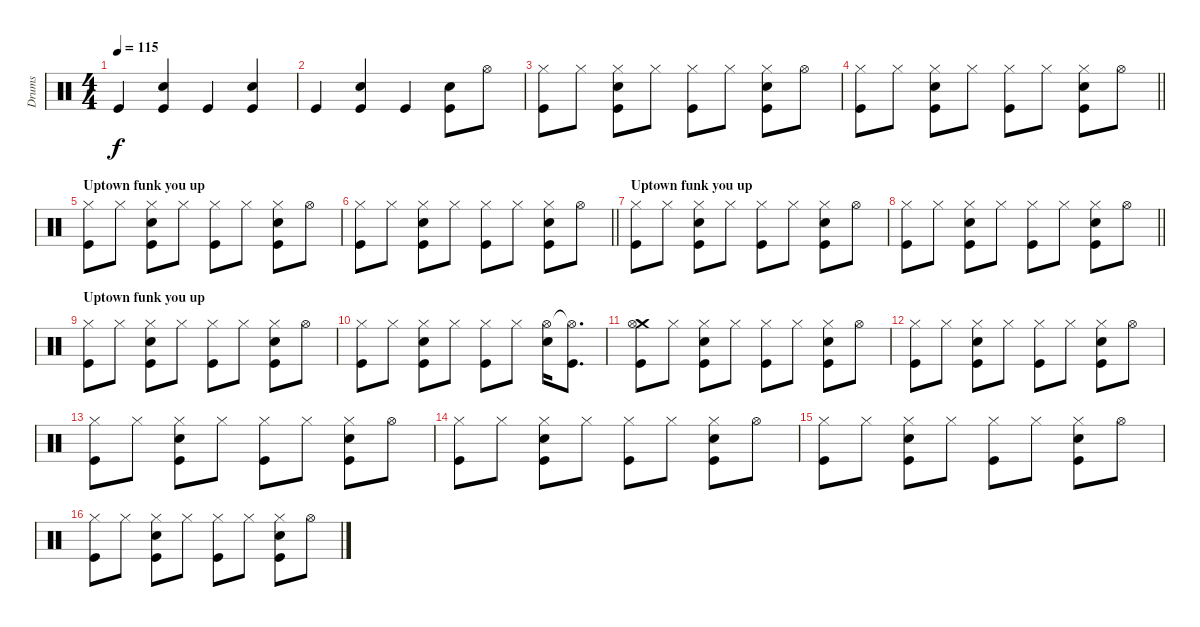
\track ("Drums" "Drums") {instrument percussion}
\staff {score}
\articulation defaults
\ts (4 4)
\tempo 115
\clef neutral
\ks c "Kick (hit)".4{dy f}
("Snare (hit) 2" "Kick (hit)").4 "Kick (hit)".4 ("Snare (hit) 2" "Kick (hit)").4 |
"Kick (hit)".4 ("Snare (hit) 2" "Kick (hit)").4 "Kick (hit)".4 ("Snare (hit) 2" "Kick (hit)").8 "Hi-Hat (open)".8 |
("Hi-Hat (closed)" "Kick (hit)").8 "Hi-Hat (closed)".8 ("Hi-Hat (closed)" "Snare (hit) 2" "Kick (hit)").8 "Hi-Hat (closed)".8 ("Hi-Hat (closed)" "Kick (hit)").8 "Hi-Hat (closed)".8 ("Hi-Hat (closed)" "Snare (hit) 2" "Kick (hit)").8 "Hi-Hat (open)".8 |
\barLineRight lightlight
("Hi-Hat (closed)" "Kick (hit)").8 "Hi-Hat (closed)".8 ("Hi-Hat (closed)" "Snare (hit) 2" "Kick (hit)").8 "Hi-Hat (closed)".8 ("Hi-Hat (closed)" "Kick (hit)").8 "Hi-Hat (closed)".8 ("Hi-Hat (closed)" "Snare (hit) 2" "Kick (hit)").8 "Hi-Hat (open)".8 |
\section ("" "Uptown funk you up")
("Hi-Hat (closed)" "Kick (hit)").8 "Hi-Hat (closed)".8 ("Hi-Hat (closed)" "Snare (hit) 2" "Kick (hit)").8 "Hi-Hat (closed)".8 ("Hi-Hat (closed)" "Kick (hit)").8 "Hi-Hat (closed)".8 ("Hi-Hat (closed)" "Snare (hit) 2" "Kick (hit)").8 "Hi-Hat (open)".8 |
\barLineRight lightlight
("Hi-Hat (closed)" "Kick (hit)").8 "Hi-Hat (closed)".8 ("Hi-Hat (closed)" "Snare (hit) 2" "Kick (hit)").8 "Hi-Hat (closed)".8 ("Hi-Hat (closed)" "Kick (hit)").8 "Hi-Hat (closed)".8 ("Hi-Hat (closed)" "Snare (hit) 2" "Kick (hit)").8 "Hi-Hat (open)".8 |
\section ("" "Uptown funk you up")
("Hi-Hat (closed)" "Kick (hit)").8 "Hi-Hat (closed)".8 ("Hi-Hat (closed)" "Snare (hit) 2" "Kick (hit)").8 "Hi-Hat (closed)".8 ("Hi-Hat (closed)" "Kick (hit)").8 "Hi-Hat (closed)".8 ("Hi-Hat (closed)" "Snare (hit) 2" "Kick (hit)").8 "Hi-Hat (open)".8 |
\barLineRight lightlight
("Hi-Hat (closed)" "Kick (hit)").8 "Hi-Hat (closed)".8 ("Hi-Hat (closed)" "Snare (hit) 2" "Kick (hit)").8 "Hi-Hat (closed)".8 ("Hi-Hat (closed)" "Kick (hit)").8 "Hi-Hat (closed)".8 ("Hi-Hat (closed)" "Snare (hit) 2" "Kick (hit)").8 "Hi-Hat (open)".8 |
\section ("" "Uptown funk you up")
("Hi-Hat (closed)" "Kick (hit)").8 "Hi-Hat (closed)".8 ("Hi-Hat (closed)" "Snare (hit) 2" "Kick (hit)").8 "Hi-Hat (closed)".8 ("Hi-Hat (closed)" "Kick (hit)").8 "Hi-Hat (closed)".8 ("Hi-Hat (closed)" "Snare (hit) 2" "Kick (hit)").8 "Hi-Hat (open)".8 |
("Hi-Hat (closed)" "Kick (hit)").8 "Hi-Hat (closed)".8 ("Hi-Hat (closed)" "Snare (hit) 2" "Kick (hit)").8 "Hi-Hat (closed)".8 ("Hi-Hat (closed)" "Kick (hit)").8 "Hi-Hat (closed)".8 ("Hi-Hat (open)" "Snare (hit) 2").16 ("Hi-Hat (open)"{t} "Kick (hit)").8{d} |
("Crash medium (hit)" "Hi-Hat (open)" "Kick (hit)").8 "Hi-Hat (closed)".8 ("Hi-Hat (closed)" "Snare (hit) 2" "Kick (hit)").8 "Hi-Hat (closed)".8 ("Hi-Hat (closed)" "Kick (hit)").8 "Hi-Hat (closed)".8 ("Hi-Hat (closed)" "Snare (hit) 2" "Kick (hit)").8 "Hi-Hat (open)".8 |
("Hi-Hat (closed)" "Kick (hit)").8 "Hi-Hat (closed)".8 ("Hi-Hat (closed)" "Snare (hit) 2" "Kick (hit)").8 "Hi-Hat (closed)".8 ("Hi-Hat (closed)" "Kick (hit)").8 "Hi-Hat (closed)".8 ("Hi-Hat (closed)" "Snare (hit) 2" "Kick (hit)").8 "Hi-Hat (open)".8 |
("Hi-Hat (closed)" "Kick (hit)").8 "Hi-Hat (closed)".8 ("Hi-Hat (closed)" "Snare (hit) 2" "Kick (hit)").8 "Hi-Hat (closed)".8 ("Hi-Hat (closed)" "Kick (hit)").8 "Hi-Hat (closed)".8 ("Hi-Hat (closed)" "Snare (hit) 2" "Kick (hit)").8 "Hi-Hat (open)".8 |
("Hi-Hat (closed)" "Kick (hit)").8 "Hi-Hat (closed)".8 ("Hi-Hat (closed)" "Snare (hit) 2" "Kick (hit)").8 "Hi-Hat (closed)".8 ("Hi-Hat (closed)" "Kick (hit)").8 "Hi-Hat (closed)".8 ("Hi-Hat (closed)" "Snare (hit) 2" "Kick (hit)").8 "Hi-Hat (open)".8 |
("Hi-Hat (closed)" "Kick (hit)").8 "Hi-Hat (closed)".8 ("Hi-Hat (closed)" "Snare (hit) 2" "Kick (hit)").8 "Hi-Hat (closed)".8 ("Hi-Hat (closed)" "Kick (hit)").8 "Hi-Hat (closed)".8 ("Hi-Hat (closed)" "Snare (hit) 2" "Kick (hit)").8 "Hi-Hat (open)".8 |
("Hi-Hat (closed)" "Kick (hit)").8 "Hi-Hat (closed)".8 ("Hi-Hat (closed)" "Snare (hit) 2" "Kick (hit)").8 "Hi-Hat (closed)".8 ("Hi-Hat (closed)" "Kick (hit)").8 "Hi-Hat (closed)".8 ("Hi-Hat (closed)" "Snare (hit) 2" "Kick (hit)").8 "Hi-Hat (open)".8
